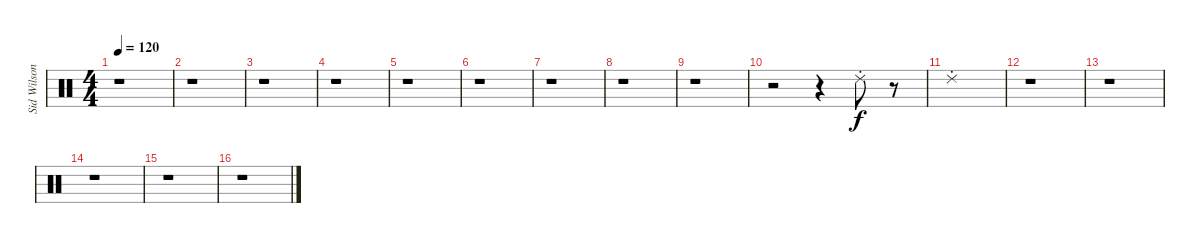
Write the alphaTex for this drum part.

\track ("Sid Wilson" "Sid Wilson") {instrument percussion}
\staff {score}
\articulation defaults
\ts (4 4)
\tempo 120
\clef neutral
\ks c
r.1{dy f} |
r.1 |
r.1 |
r.1 |
r.1 |
r.1 |
r.1 |
r.1 |
r.1 |
r.2 r.4 "Ride (choke) 2".8 r.8 |
"Ride (choke) 2".1 |
r.1 |
r.1 |
r.1 |
r.1 |
r.1
